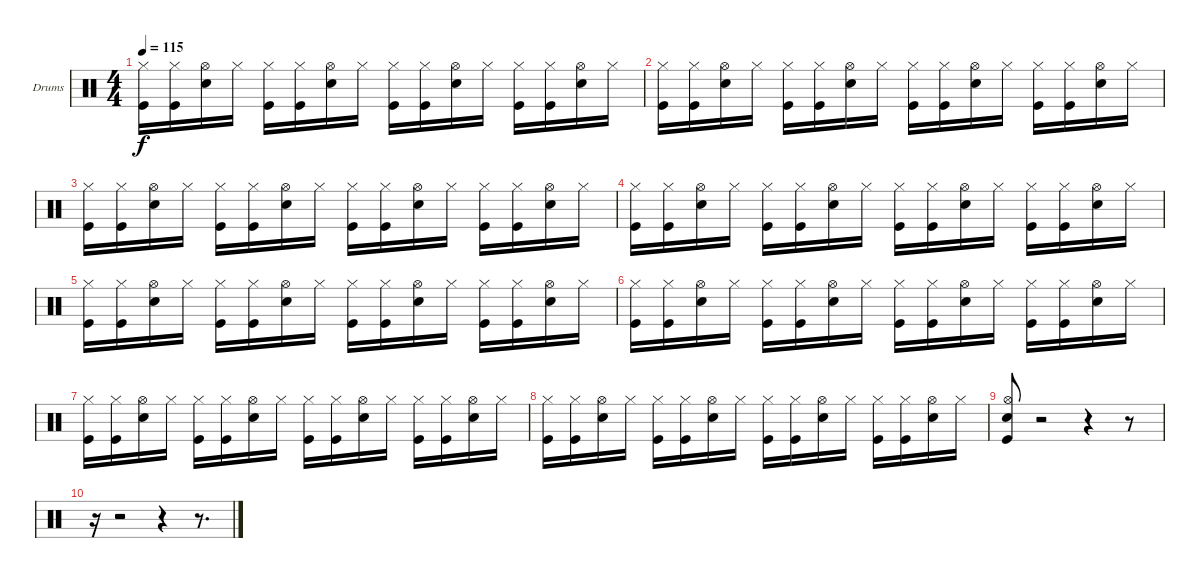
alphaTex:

\bracketExtendMode groupsimilarinstruments
\firstSystemTrackNameOrientation horizontal
\otherSystemsTrackNameOrientation horizontal
\track ("Drumkit" "Drums") {instrument percussion}
\staff {score}
\articulation defaults
\ts (4 4)
\tempo 115
\clef neutral
\ks c
("Hi-Hat (closed)" "Kick (hit)").16{dy f} ("Hi-Hat (closed)" "Kick (hit)").16 ("Hi-Hat (open)" "Snare (hit) 2").16 "Hi-Hat (closed)".16 ("Hi-Hat (closed)" "Kick (hit)").16 ("Hi-Hat (closed)" "Kick (hit)").16 ("Hi-Hat (open)" "Snare (hit) 2").16 "Hi-Hat (closed)".16 ("Hi-Hat (closed)" "Kick (hit)").16 ("Hi-Hat (closed)" "Kick (hit)").16 ("Hi-Hat (open)" "Snare (hit) 2").16 "Hi-Hat (closed)".16 ("Hi-Hat (closed)" "Kick (hit)").16 ("Hi-Hat (closed)" "Kick (hit)").16 ("Hi-Hat (open)" "Snare (hit) 2").16 "Hi-Hat (closed)".16 |
("Hi-Hat (closed)" "Kick (hit)").16 ("Hi-Hat (closed)" "Kick (hit)").16 ("Hi-Hat (open)" "Snare (hit) 2").16 "Hi-Hat (closed)".16 ("Hi-Hat (closed)" "Kick (hit)").16 ("Hi-Hat (closed)" "Kick (hit)").16 ("Hi-Hat (open)" "Snare (hit) 2").16 "Hi-Hat (closed)".16 ("Hi-Hat (closed)" "Kick (hit)").16 ("Hi-Hat (closed)" "Kick (hit)").16 ("Hi-Hat (open)" "Snare (hit) 2").16 "Hi-Hat (closed)".16 ("Hi-Hat (closed)" "Kick (hit)").16 ("Hi-Hat (closed)" "Kick (hit)").16 ("Hi-Hat (open)" "Snare (hit) 2").16 "Hi-Hat (closed)".16 |
("Hi-Hat (closed)" "Kick (hit)").16 ("Hi-Hat (closed)" "Kick (hit)").16 ("Hi-Hat (open)" "Snare (hit) 2").16 "Hi-Hat (closed)".16 ("Hi-Hat (closed)" "Kick (hit)").16 ("Hi-Hat (closed)" "Kick (hit)").16 ("Hi-Hat (open)" "Snare (hit) 2").16 "Hi-Hat (closed)".16 ("Hi-Hat (closed)" "Kick (hit)").16 ("Hi-Hat (closed)" "Kick (hit)").16 ("Hi-Hat (open)" "Snare (hit) 2").16 "Hi-Hat (closed)".16 ("Hi-Hat (closed)" "Kick (hit)").16 ("Hi-Hat (closed)" "Kick (hit)").16 ("Hi-Hat (open)" "Snare (hit) 2").16 "Hi-Hat (closed)".16 |
("Hi-Hat (closed)" "Kick (hit)").16 ("Hi-Hat (closed)" "Kick (hit)").16 ("Hi-Hat (open)" "Snare (hit) 2").16 "Hi-Hat (closed)".16 ("Hi-Hat (closed)" "Kick (hit)").16 ("Hi-Hat (closed)" "Kick (hit)").16 ("Hi-Hat (open)" "Snare (hit) 2").16 "Hi-Hat (closed)".16 ("Hi-Hat (closed)" "Kick (hit)").16 ("Hi-Hat (closed)" "Kick (hit)").16 ("Hi-Hat (open)" "Snare (hit) 2").16 "Hi-Hat (closed)".16 ("Hi-Hat (closed)" "Kick (hit)").16 ("Hi-Hat (closed)" "Kick (hit)").16 ("Hi-Hat (open)" "Snare (hit) 2").16 "Hi-Hat (closed)".16 |
("Hi-Hat (closed)" "Kick (hit)").16 ("Hi-Hat (closed)" "Kick (hit)").16 ("Hi-Hat (open)" "Snare (hit) 2").16 "Hi-Hat (closed)".16 ("Hi-Hat (closed)" "Kick (hit)").16 ("Hi-Hat (closed)" "Kick (hit)").16 ("Hi-Hat (open)" "Snare (hit) 2").16 "Hi-Hat (closed)".16 ("Hi-Hat (closed)" "Kick (hit)").16 ("Hi-Hat (closed)" "Kick (hit)").16 ("Hi-Hat (open)" "Snare (hit) 2").16 "Hi-Hat (closed)".16 ("Hi-Hat (closed)" "Kick (hit)").16 ("Hi-Hat (closed)" "Kick (hit)").16 ("Hi-Hat (open)" "Snare (hit) 2").16 "Hi-Hat (closed)".16 |
("Hi-Hat (closed)" "Kick (hit)").16 ("Hi-Hat (closed)" "Kick (hit)").16 ("Hi-Hat (open)" "Snare (hit) 2").16 "Hi-Hat (closed)".16 ("Hi-Hat (closed)" "Kick (hit)").16 ("Hi-Hat (closed)" "Kick (hit)").16 ("Hi-Hat (open)" "Snare (hit) 2").16 "Hi-Hat (closed)".16 ("Hi-Hat (closed)" "Kick (hit)").16 ("Hi-Hat (closed)" "Kick (hit)").16 ("Hi-Hat (open)" "Snare (hit) 2").16 "Hi-Hat (closed)".16 ("Hi-Hat (closed)" "Kick (hit)").16 ("Hi-Hat (closed)" "Kick (hit)").16 ("Hi-Hat (open)" "Snare (hit) 2").16 "Hi-Hat (closed)".16 |
("Hi-Hat (closed)" "Kick (hit)").16 ("Hi-Hat (closed)" "Kick (hit)").16 ("Hi-Hat (open)" "Snare (hit) 2").16 "Hi-Hat (closed)".16 ("Hi-Hat (closed)" "Kick (hit)").16 ("Hi-Hat (closed)" "Kick (hit)").16 ("Hi-Hat (open)" "Snare (hit) 2").16 "Hi-Hat (closed)".16 ("Hi-Hat (closed)" "Kick (hit)").16 ("Hi-Hat (closed)" "Kick (hit)").16 ("Hi-Hat (open)" "Snare (hit) 2").16 "Hi-Hat (closed)".16 ("Hi-Hat (closed)" "Kick (hit)").16 ("Hi-Hat (closed)" "Kick (hit)").16 ("Hi-Hat (open)" "Snare (hit) 2").16 "Hi-Hat (closed)".16 |
("Hi-Hat (closed)" "Kick (hit)").16 ("Hi-Hat (closed)" "Kick (hit)").16 ("Hi-Hat (open)" "Snare (hit) 2").16 "Hi-Hat (closed)".16 ("Hi-Hat (closed)" "Kick (hit)").16 ("Hi-Hat (closed)" "Kick (hit)").16 ("Hi-Hat (open)" "Snare (hit) 2").16 "Hi-Hat (closed)".16 ("Hi-Hat (closed)" "Kick (hit)").16 ("Hi-Hat (closed)" "Kick (hit)").16 ("Hi-Hat (open)" "Snare (hit) 2").16 "Hi-Hat (closed)".16 ("Hi-Hat (closed)" "Kick (hit)").16 ("Hi-Hat (closed)" "Kick (hit)").16 ("Hi-Hat (open)" "Snare (hit) 2").16 "Hi-Hat (closed)".16 |
("Hi-Hat (open)" "Snare (hit) 2" "Kick (hit)").8 r.2 r.4 r.8 |
r.16 r.2 r.4 r.8{d}
